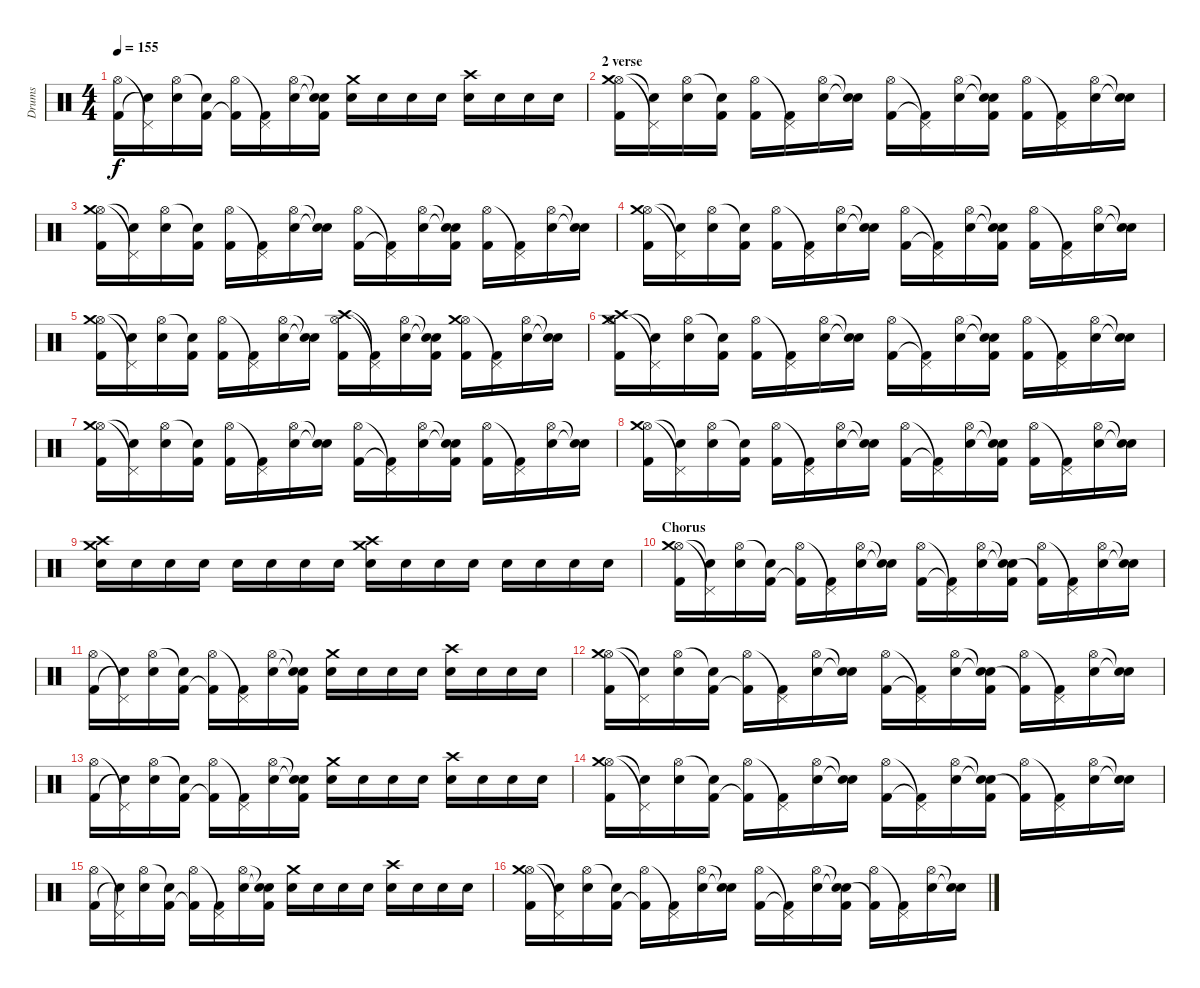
\track ("Drums" "Drums") {instrument percussion}
\staff {score}
\articulation defaults
\ts (4 4)
\tempo 155
\clef neutral
\ks c
("Hi-Hat (open)" "Kick (hit) 2").16{dy f} ("Pedal Hi-Hat (hit)"{t} "Snare (hit)"{t}).16 ("Hi-Hat (open)" "Electric Snare (hit)").16 ("Snare (hit)"{t} "Kick (hit) 2").16 ("Hi-Hat (open)" "Kick (hit) 2"{t}).16 ("Pedal Hi-Hat (hit)"{t} "Kick (hit) 2").16 ("Hi-Hat (open)" "Electric Snare (hit)").16 ("Snare (hit)"{t} "Electric Snare (hit)"{t} "Kick (hit) 2").16 ("Crash medium (hit)" "Electric Snare (hit)").16 "Electric Snare (hit)".16 "Electric Snare (hit)".16 "Electric Snare (hit)".16 ("Crash high (hit)" "Electric Snare (hit)").16 "Electric Snare (hit)".16 "Electric Snare (hit)".16 "Electric Snare (hit)".16 |
\section ("" "2 verse")
("Hi-Hat (open)" "Crash medium (hit)" "Kick (hit) 2").16 ("Pedal Hi-Hat (hit)"{t} "Snare (hit)"{t}).16 ("Hi-Hat (open)" "Electric Snare (hit)").16 ("Snare (hit)"{t} "Kick (hit) 2").16 ("Hi-Hat (open)" "Kick (hit) 2").16 ("Pedal Hi-Hat (hit)"{t} "Kick (hit) 2").16 ("Hi-Hat (open)" "Electric Snare (hit)").16 ("Snare (hit)"{t} "Electric Snare (hit)"{t}).16 ("Hi-Hat (open)" "Kick (hit) 2").16 ("Pedal Hi-Hat (hit)"{t} "Kick (hit) 2"{t}).16 ("Hi-Hat (open)" "Electric Snare (hit)").16 ("Snare (hit)"{t} "Electric Snare (hit)"{t} "Kick (hit) 2").16 ("Hi-Hat (open)" "Kick (hit) 2").16 ("Pedal Hi-Hat (hit)"{t} "Kick (hit) 2").16 ("Hi-Hat (open)" "Electric Snare (hit)").16 ("Snare (hit)"{t} "Electric Snare (hit)"{t}).16 |
("Hi-Hat (open)" "Crash medium (hit)" "Kick (hit) 2").16 ("Pedal Hi-Hat (hit)"{t} "Snare (hit)"{t}).16 ("Hi-Hat (open)" "Electric Snare (hit)").16 ("Snare (hit)"{t} "Kick (hit) 2").16 ("Hi-Hat (open)" "Kick (hit) 2").16 ("Pedal Hi-Hat (hit)"{t} "Kick (hit) 2").16 ("Hi-Hat (open)" "Electric Snare (hit)").16 ("Snare (hit)"{t} "Electric Snare (hit)"{t}).16 ("Hi-Hat (open)" "Kick (hit) 2").16 ("Pedal Hi-Hat (hit)"{t} "Kick (hit) 2"{t}).16 ("Hi-Hat (open)" "Electric Snare (hit)").16 ("Snare (hit)"{t} "Electric Snare (hit)"{t} "Kick (hit) 2").16 ("Hi-Hat (open)" "Kick (hit) 2").16 ("Pedal Hi-Hat (hit)"{t} "Kick (hit) 2").16 ("Hi-Hat (open)" "Electric Snare (hit)").16 ("Snare (hit)"{t} "Electric Snare (hit)"{t}).16 |
("Hi-Hat (open)" "Crash medium (hit)" "Kick (hit) 2").16 ("Pedal Hi-Hat (hit)"{t} "Snare (hit)"{t}).16 ("Hi-Hat (open)" "Electric Snare (hit)").16 ("Snare (hit)"{t} "Kick (hit) 2").16 ("Hi-Hat (open)" "Kick (hit) 2").16 ("Pedal Hi-Hat (hit)"{t} "Kick (hit) 2").16 ("Hi-Hat (open)" "Electric Snare (hit)").16 ("Snare (hit)"{t} "Electric Snare (hit)"{t}).16 ("Hi-Hat (open)" "Kick (hit) 2").16 ("Pedal Hi-Hat (hit)"{t} "Kick (hit) 2"{t}).16 ("Hi-Hat (open)" "Electric Snare (hit)").16 ("Snare (hit)"{t} "Electric Snare (hit)"{t} "Kick (hit) 2").16 ("Hi-Hat (open)" "Kick (hit) 2").16 ("Pedal Hi-Hat (hit)"{t} "Kick (hit) 2").16 ("Hi-Hat (open)" "Electric Snare (hit)").16 ("Snare (hit)"{t} "Electric Snare (hit)"{t}).16 |
("Hi-Hat (open)" "Crash medium (hit)" "Kick (hit) 2").16 ("Pedal Hi-Hat (hit)"{t} "Snare (hit)"{t}).16 ("Hi-Hat (open)" "Electric Snare (hit)").16 ("Snare (hit)"{t} "Kick (hit) 2").16 ("Hi-Hat (open)" "Kick (hit) 2").16 ("Pedal Hi-Hat (hit)"{t} "Kick (hit) 2").16 ("Hi-Hat (open)" "Electric Snare (hit)").16 ("Snare (hit)"{t} "Electric Snare (hit)"{t}).16 ("Hi-Hat (open)" "Crash high (hit)" "Kick (hit) 2").16 ("Pedal Hi-Hat (hit)"{t} "Kick (hit) 2"{t}).16 ("Hi-Hat (open)" "Electric Snare (hit)").16 ("Snare (hit)"{t} "Electric Snare (hit)"{t} "Kick (hit) 2").16 ("Hi-Hat (open)" "Crash medium (hit)" "Kick (hit) 2").16 ("Pedal Hi-Hat (hit)"{t} "Kick (hit) 2").16 ("Hi-Hat (open)" "Electric Snare (hit)").16 ("Snare (hit)"{t} "Electric Snare (hit)"{t}).16 |
("Hi-Hat (open)" "Crash medium (hit)" "Crash high (hit)" "Kick (hit) 2").16 ("Pedal Hi-Hat (hit)"{t} "Snare (hit)"{t}).16 ("Hi-Hat (open)" "Electric Snare (hit)").16 ("Snare (hit)"{t} "Kick (hit) 2").16 ("Hi-Hat (open)" "Kick (hit) 2").16 ("Pedal Hi-Hat (hit)"{t} "Kick (hit) 2").16 ("Hi-Hat (open)" "Electric Snare (hit)").16 ("Snare (hit)"{t} "Electric Snare (hit)"{t}).16 ("Hi-Hat (open)" "Kick (hit) 2").16 ("Pedal Hi-Hat (hit)"{t} "Kick (hit) 2"{t}).16 ("Hi-Hat (open)" "Electric Snare (hit)").16 ("Snare (hit)"{t} "Electric Snare (hit)"{t} "Kick (hit) 2").16 ("Hi-Hat (open)" "Kick (hit) 2").16 ("Pedal Hi-Hat (hit)"{t} "Kick (hit) 2").16 ("Hi-Hat (open)" "Electric Snare (hit)").16 ("Snare (hit)"{t} "Electric Snare (hit)"{t}).16 |
("Hi-Hat (open)" "Crash medium (hit)" "Kick (hit) 2").16 ("Pedal Hi-Hat (hit)"{t} "Snare (hit)"{t}).16 ("Hi-Hat (open)" "Electric Snare (hit)").16 ("Snare (hit)"{t} "Kick (hit) 2").16 ("Hi-Hat (open)" "Kick (hit) 2").16 ("Pedal Hi-Hat (hit)"{t} "Kick (hit) 2").16 ("Hi-Hat (open)" "Electric Snare (hit)").16 ("Snare (hit)"{t} "Electric Snare (hit)"{t}).16 ("Hi-Hat (open)" "Kick (hit) 2").16 ("Pedal Hi-Hat (hit)"{t} "Kick (hit) 2"{t}).16 ("Hi-Hat (open)" "Electric Snare (hit)").16 ("Snare (hit)"{t} "Electric Snare (hit)"{t} "Kick (hit) 2").16 ("Hi-Hat (open)" "Kick (hit) 2").16 ("Pedal Hi-Hat (hit)"{t} "Kick (hit) 2").16 ("Hi-Hat (open)" "Electric Snare (hit)").16 ("Snare (hit)"{t} "Electric Snare (hit)"{t}).16 |
("Hi-Hat (open)" "Crash medium (hit)" "Kick (hit) 2").16 ("Pedal Hi-Hat (hit)"{t} "Snare (hit)"{t}).16 ("Hi-Hat (open)" "Electric Snare (hit)").16 ("Snare (hit)"{t} "Kick (hit) 2").16 ("Hi-Hat (open)" "Kick (hit) 2").16 ("Pedal Hi-Hat (hit)"{t} "Kick (hit) 2").16 ("Hi-Hat (open)" "Electric Snare (hit)").16 ("Snare (hit)"{t} "Electric Snare (hit)"{t}).16 ("Hi-Hat (open)" "Kick (hit) 2").16 ("Pedal Hi-Hat (hit)"{t} "Kick (hit) 2"{t}).16 ("Hi-Hat (open)" "Electric Snare (hit)").16 ("Snare (hit)"{t} "Electric Snare (hit)"{t} "Kick (hit) 2").16 ("Hi-Hat (open)" "Kick (hit) 2").16 ("Pedal Hi-Hat (hit)"{t} "Kick (hit) 2").16 ("Hi-Hat (open)" "Electric Snare (hit)").16 ("Snare (hit)"{t} "Electric Snare (hit)"{t}).16 |
("Crash high (hit)" "Crash medium (hit)" "Snare (hit) 2").16 "Snare (hit) 2".16 "Snare (hit) 2".16 "Snare (hit) 2".16 "Snare (hit) 2".16 "Snare (hit) 2".16 "Snare (hit) 2".16 "Snare (hit) 2".16 ("Crash high (hit)" "Crash medium (hit)" "Electric Snare (hit)").16 "Electric Snare (hit)".16 "Electric Snare (hit)".16 "Electric Snare (hit)".16 "Electric Snare (hit)".16 "Electric Snare (hit)".16 "Electric Snare (hit)".16 "Electric Snare (hit)".16 |
\section ("" "Chorus")
("Hi-Hat (open)" "Crash medium (hit)" "Kick (hit) 2").16 ("Pedal Hi-Hat (hit)"{t} "Snare (hit)"{t}).16 ("Hi-Hat (open)" "Electric Snare (hit)").16 ("Snare (hit)"{t} "Kick (hit) 2").16 ("Hi-Hat (open)" "Kick (hit) 2"{t}).16 ("Pedal Hi-Hat (hit)"{t} "Kick (hit) 2").16 ("Hi-Hat (open)" "Electric Snare (hit)").16 ("Snare (hit)"{t} "Electric Snare (hit)"{t}).16 ("Hi-Hat (open)" "Kick (hit) 2").16 ("Pedal Hi-Hat (hit)"{t} "Kick (hit) 2"{t}).16 ("Hi-Hat (open)" "Electric Snare (hit)").16 ("Snare (hit)"{t} "Electric Snare (hit)"{t} "Kick (hit) 2").16 ("Hi-Hat (open)" "Kick (hit) 2"{t}).16 ("Pedal Hi-Hat (hit)"{t} "Kick (hit) 2").16 ("Hi-Hat (open)" "Electric Snare (hit)").16 ("Snare (hit)"{t} "Electric Snare (hit)"{t}).16 |
("Hi-Hat (open)" "Kick (hit) 2").16 ("Pedal Hi-Hat (hit)"{t} "Snare (hit)"{t}).16 ("Hi-Hat (open)" "Electric Snare (hit)").16 ("Snare (hit)"{t} "Kick (hit) 2").16 ("Hi-Hat (open)" "Kick (hit) 2"{t}).16 ("Pedal Hi-Hat (hit)"{t} "Kick (hit) 2").16 ("Hi-Hat (open)" "Electric Snare (hit)").16 ("Snare (hit)"{t} "Electric Snare (hit)"{t} "Kick (hit) 2").16 ("Crash medium (hit)" "Electric Snare (hit)").16 "Electric Snare (hit)".16 "Electric Snare (hit)".16 "Electric Snare (hit)".16 ("Crash high (hit)" "Electric Snare (hit)").16 "Electric Snare (hit)".16 "Electric Snare (hit)".16 "Electric Snare (hit)".16 |
("Hi-Hat (open)" "Crash medium (hit)" "Kick (hit) 2").16 ("Pedal Hi-Hat (hit)"{t} "Snare (hit)"{t}).16 ("Hi-Hat (open)" "Electric Snare (hit)").16 ("Snare (hit)"{t} "Kick (hit) 2").16 ("Hi-Hat (open)" "Kick (hit) 2"{t}).16 ("Pedal Hi-Hat (hit)"{t} "Kick (hit) 2").16 ("Hi-Hat (open)" "Electric Snare (hit)").16 ("Snare (hit)"{t} "Electric Snare (hit)"{t}).16 ("Hi-Hat (open)" "Kick (hit) 2").16 ("Pedal Hi-Hat (hit)"{t} "Kick (hit) 2"{t}).16 ("Hi-Hat (open)" "Electric Snare (hit)").16 ("Snare (hit)"{t} "Electric Snare (hit)"{t} "Kick (hit) 2").16 ("Hi-Hat (open)" "Kick (hit) 2"{t}).16 ("Pedal Hi-Hat (hit)"{t} "Kick (hit) 2").16 ("Hi-Hat (open)" "Electric Snare (hit)").16 ("Snare (hit)"{t} "Electric Snare (hit)"{t}).16 |
("Hi-Hat (open)" "Kick (hit) 2").16 ("Pedal Hi-Hat (hit)"{t} "Snare (hit)"{t}).16 ("Hi-Hat (open)" "Electric Snare (hit)").16 ("Snare (hit)"{t} "Kick (hit) 2").16 ("Hi-Hat (open)" "Kick (hit) 2"{t}).16 ("Pedal Hi-Hat (hit)"{t} "Kick (hit) 2").16 ("Hi-Hat (open)" "Electric Snare (hit)").16 ("Snare (hit)"{t} "Electric Snare (hit)"{t} "Kick (hit) 2").16 ("Crash medium (hit)" "Electric Snare (hit)").16 "Electric Snare (hit)".16 "Electric Snare (hit)".16 "Electric Snare (hit)".16 ("Crash high (hit)" "Electric Snare (hit)").16 "Electric Snare (hit)".16 "Electric Snare (hit)".16 "Electric Snare (hit)".16 |
("Hi-Hat (open)" "Crash medium (hit)" "Kick (hit) 2").16 ("Pedal Hi-Hat (hit)"{t} "Snare (hit)"{t}).16 ("Hi-Hat (open)" "Electric Snare (hit)").16 ("Snare (hit)"{t} "Kick (hit) 2").16 ("Hi-Hat (open)" "Kick (hit) 2"{t}).16 ("Pedal Hi-Hat (hit)"{t} "Kick (hit) 2").16 ("Hi-Hat (open)" "Electric Snare (hit)").16 ("Snare (hit)"{t} "Electric Snare (hit)"{t}).16 ("Hi-Hat (open)" "Kick (hit) 2").16 ("Pedal Hi-Hat (hit)"{t} "Kick (hit) 2"{t}).16 ("Hi-Hat (open)" "Electric Snare (hit)").16 ("Snare (hit)"{t} "Electric Snare (hit)"{t} "Kick (hit) 2").16 ("Hi-Hat (open)" "Kick (hit) 2"{t}).16 ("Pedal Hi-Hat (hit)"{t} "Kick (hit) 2").16 ("Hi-Hat (open)" "Electric Snare (hit)").16 ("Snare (hit)"{t} "Electric Snare (hit)"{t}).16 |
("Hi-Hat (open)" "Kick (hit) 2").16 ("Pedal Hi-Hat (hit)"{t} "Snare (hit)"{t}).16 ("Hi-Hat (open)" "Electric Snare (hit)").16 ("Snare (hit)"{t} "Kick (hit) 2").16 ("Hi-Hat (open)" "Kick (hit) 2"{t}).16 ("Pedal Hi-Hat (hit)"{t} "Kick (hit) 2").16 ("Hi-Hat (open)" "Electric Snare (hit)").16 ("Snare (hit)"{t} "Electric Snare (hit)"{t} "Kick (hit) 2").16 ("Crash medium (hit)" "Electric Snare (hit)").16 "Electric Snare (hit)".16 "Electric Snare (hit)".16 "Electric Snare (hit)".16 ("Crash high (hit)" "Electric Snare (hit)").16 "Electric Snare (hit)".16 "Electric Snare (hit)".16 "Electric Snare (hit)".16 |
("Hi-Hat (open)" "Crash medium (hit)" "Kick (hit) 2").16 ("Pedal Hi-Hat (hit)"{t} "Snare (hit)"{t}).16 ("Hi-Hat (open)" "Electric Snare (hit)").16 ("Snare (hit)"{t} "Kick (hit) 2").16 ("Hi-Hat (open)" "Kick (hit) 2"{t}).16 ("Pedal Hi-Hat (hit)"{t} "Kick (hit) 2").16 ("Hi-Hat (open)" "Electric Snare (hit)").16 ("Snare (hit)"{t} "Electric Snare (hit)"{t}).16 ("Hi-Hat (open)" "Kick (hit) 2").16 ("Pedal Hi-Hat (hit)"{t} "Kick (hit) 2"{t}).16 ("Hi-Hat (open)" "Electric Snare (hit)").16 ("Snare (hit)"{t} "Electric Snare (hit)"{t} "Kick (hit) 2").16 ("Hi-Hat (open)" "Kick (hit) 2"{t}).16 ("Pedal Hi-Hat (hit)"{t} "Kick (hit) 2").16 ("Hi-Hat (open)" "Electric Snare (hit)").16 ("Snare (hit)"{t} "Electric Snare (hit)"{t}).16
